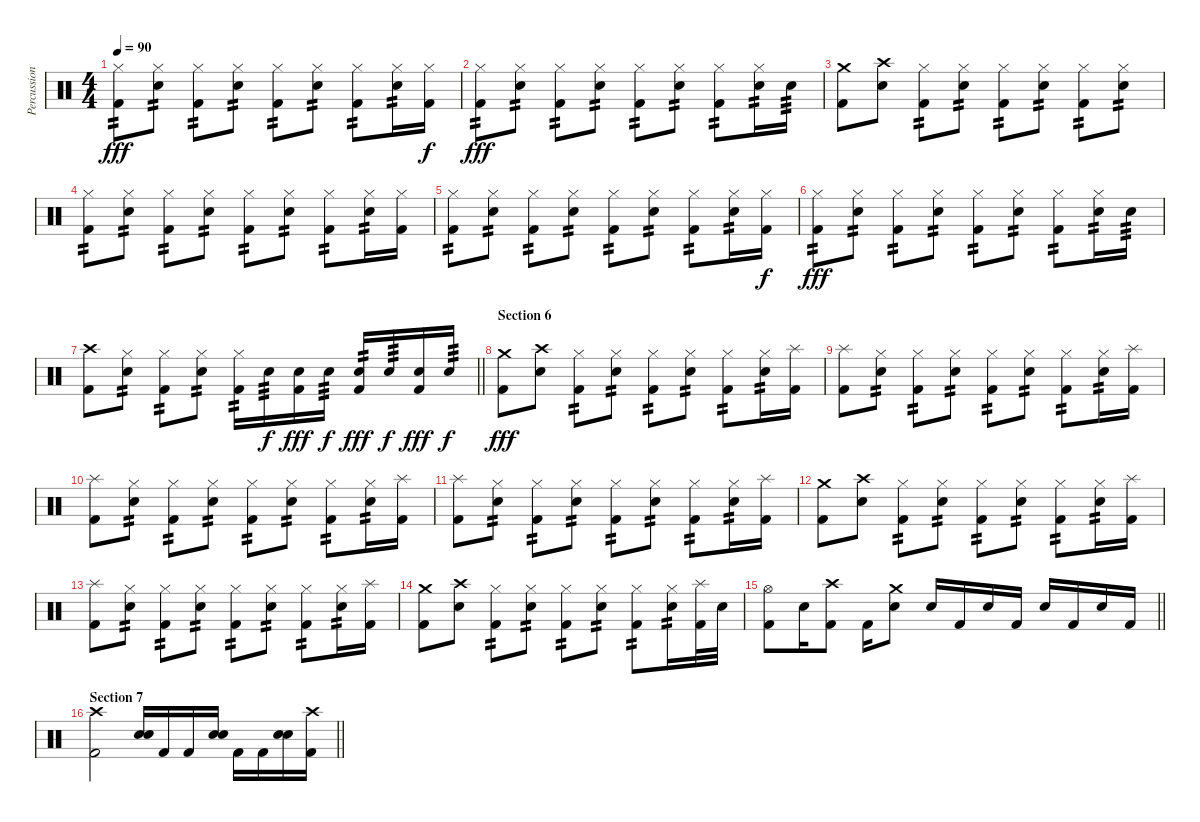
\track ("Percussion" "Percussion") {instrument percussion}
\staff {score}
\articulation defaults
\ts (4 4)
\tempo 90
\clef neutral
\ks c
("Hi-Hat (closed)" "Kick (hit) 2").8{tp 2 dy fff} ("Hi-Hat (closed)" "Electric Snare (hit)").8{tp 2} ("Hi-Hat (closed)" "Kick (hit) 2").8{tp 2} ("Hi-Hat (closed)" "Electric Snare (hit)").8{tp 2} ("Hi-Hat (closed)" "Kick (hit) 2").8{tp 2} ("Hi-Hat (closed)" "Electric Snare (hit)").8{tp 2} ("Hi-Hat (closed)" "Kick (hit) 2").8{tp 2} ("Hi-Hat (closed)" "Electric Snare (hit)").16{tp 2} ("Hi-Hat (closed)" "Kick (hit) 2").16{dy f} |
("Hi-Hat (closed)" "Kick (hit) 2").8{tp 2 dy fff} ("Hi-Hat (closed)" "Electric Snare (hit)").8{tp 2} ("Hi-Hat (closed)" "Kick (hit) 2").8{tp 2} ("Hi-Hat (closed)" "Electric Snare (hit)").8{tp 2} ("Hi-Hat (closed)" "Kick (hit) 2").8{tp 2} ("Hi-Hat (closed)" "Electric Snare (hit)").8{tp 2} ("Hi-Hat (closed)" "Kick (hit) 2").8{tp 2} ("Hi-Hat (closed)" "Electric Snare (hit)").16{tp 2} "Electric Snare (hit)".16{tp 3} |
("Crash medium (hit)" "Kick (hit) 2").8 ("Crash high (hit)" "Electric Snare (hit)").8 ("Hi-Hat (closed)" "Kick (hit) 2").8{tp 2} ("Hi-Hat (closed)" "Electric Snare (hit)").8{tp 2} ("Hi-Hat (closed)" "Kick (hit) 2").8{tp 2} ("Hi-Hat (closed)" "Electric Snare (hit)").8{tp 2} ("Hi-Hat (closed)" "Kick (hit) 2").8{tp 2} ("Hi-Hat (closed)" "Electric Snare (hit)").8{tp 2} |
("Hi-Hat (closed)" "Kick (hit) 2").8{tp 2} ("Hi-Hat (closed)" "Electric Snare (hit)").8{tp 2} ("Hi-Hat (closed)" "Kick (hit) 2").8{tp 2} ("Hi-Hat (closed)" "Electric Snare (hit)").8{tp 2} ("Hi-Hat (closed)" "Kick (hit) 2").8{tp 2} ("Hi-Hat (closed)" "Electric Snare (hit)").8{tp 2} ("Hi-Hat (closed)" "Kick (hit) 2").8{tp 2} ("Hi-Hat (closed)" "Electric Snare (hit)").16{tp 2} ("Hi-Hat (closed)" "Kick (hit) 2").16 |
("Hi-Hat (closed)" "Kick (hit) 2").8{tp 2} ("Hi-Hat (closed)" "Electric Snare (hit)").8{tp 2} ("Hi-Hat (closed)" "Kick (hit) 2").8{tp 2} ("Hi-Hat (closed)" "Electric Snare (hit)").8{tp 2} ("Hi-Hat (closed)" "Kick (hit) 2").8{tp 2} ("Hi-Hat (closed)" "Electric Snare (hit)").8{tp 2} ("Hi-Hat (closed)" "Kick (hit) 2").8{tp 2} ("Hi-Hat (closed)" "Electric Snare (hit)").16{tp 2} ("Hi-Hat (closed)" "Kick (hit) 2").16{dy f} |
("Hi-Hat (closed)" "Kick (hit) 2").8{tp 2 dy fff} ("Hi-Hat (closed)" "Electric Snare (hit)").8{tp 2} ("Hi-Hat (closed)" "Kick (hit) 2").8{tp 2} ("Hi-Hat (closed)" "Electric Snare (hit)").8{tp 2} ("Hi-Hat (closed)" "Kick (hit) 2").8{tp 2} ("Hi-Hat (closed)" "Electric Snare (hit)").8{tp 2} ("Hi-Hat (closed)" "Kick (hit) 2").8{tp 2} ("Hi-Hat (closed)" "Electric Snare (hit)").16{tp 2} "Electric Snare (hit)".16{tp 3} |
\barLineRight lightlight
("Crash high (hit)" "Kick (hit) 2").8 ("Hi-Hat (closed)" "Electric Snare (hit)").8{tp 2} ("Hi-Hat (closed)" "Kick (hit) 2").8{tp 2} ("Hi-Hat (closed)" "Electric Snare (hit)").8{tp 2} ("Hi-Hat (closed)" "Kick (hit) 2").16{tp 2} "Electric Snare (hit)".16{tp 3 dy f} ("Electric Snare (hit)" "Kick (hit) 2").16{dy fff} "Electric Snare (hit)".16{tp 3 dy f} ("Electric Snare (hit)" "Kick (hit) 2").16{tp 2 dy fff} "Electric Snare (hit)".16{tp 3 dy f} ("Electric Snare (hit)" "Kick (hit) 2").16{dy fff} "Electric Snare (hit)".16{tp 3 dy f} |
\section ("" "Section 6")
("Crash medium (hit)" "Kick (hit) 2").8{dy fff} ("Crash high (hit)" "Electric Snare (hit)").8 ("Hi-Hat (closed)" "Kick (hit) 2").8{tp 2} ("Hi-Hat (closed)" "Electric Snare (hit)").8{tp 2} ("Hi-Hat (closed)" "Kick (hit) 2").8{tp 2} ("Hi-Hat (closed)" "Electric Snare (hit)").8{tp 2} ("Hi-Hat (closed)" "Kick (hit) 2").8{tp 2} ("Hi-Hat (closed)" "Electric Snare (hit)").16{tp 2} ("Splash (hit)" "Kick (hit) 2").16 |
("Splash (hit)" "Kick (hit) 2").8 ("Hi-Hat (closed)" "Electric Snare (hit)").8{tp 2} ("Hi-Hat (closed)" "Kick (hit) 2").8{tp 2} ("Hi-Hat (closed)" "Electric Snare (hit)").8{tp 2} ("Hi-Hat (closed)" "Kick (hit) 2").8{tp 2} ("Hi-Hat (closed)" "Electric Snare (hit)").8{tp 2} ("Hi-Hat (closed)" "Kick (hit) 2").8{tp 2} ("Hi-Hat (closed)" "Electric Snare (hit)").16{tp 2} ("Splash (hit)" "Kick (hit) 2").16 |
("Splash (hit)" "Kick (hit) 2").8 ("Hi-Hat (closed)" "Electric Snare (hit)").8{tp 2} ("Hi-Hat (closed)" "Kick (hit) 2").8{tp 2} ("Hi-Hat (closed)" "Electric Snare (hit)").8{tp 2} ("Hi-Hat (closed)" "Kick (hit) 2").8{tp 2} ("Hi-Hat (closed)" "Electric Snare (hit)").8{tp 2} ("Hi-Hat (closed)" "Kick (hit) 2").8{tp 2} ("Hi-Hat (closed)" "Electric Snare (hit)").16{tp 2} ("Splash (hit)" "Kick (hit) 2").16 |
("Splash (hit)" "Kick (hit) 2").8 ("Hi-Hat (closed)" "Electric Snare (hit)").8{tp 2} ("Hi-Hat (closed)" "Kick (hit) 2").8{tp 2} ("Hi-Hat (closed)" "Electric Snare (hit)").8{tp 2} ("Hi-Hat (closed)" "Kick (hit) 2").8{tp 2} ("Hi-Hat (closed)" "Electric Snare (hit)").8{tp 2} ("Hi-Hat (closed)" "Kick (hit) 2").8{tp 2} ("Hi-Hat (closed)" "Electric Snare (hit)").16{tp 2} ("Splash (hit)" "Kick (hit) 2").16 |
("Crash medium (hit)" "Kick (hit) 2").8 ("Crash high (hit)" "Electric Snare (hit)").8 ("Hi-Hat (closed)" "Kick (hit) 2").8{tp 2} ("Hi-Hat (closed)" "Electric Snare (hit)").8{tp 2} ("Hi-Hat (closed)" "Kick (hit) 2").8{tp 2} ("Hi-Hat (closed)" "Electric Snare (hit)").8{tp 2} ("Hi-Hat (closed)" "Kick (hit) 2").8{tp 2} ("Hi-Hat (closed)" "Electric Snare (hit)").16{tp 2} ("Splash (hit)" "Kick (hit) 2").16 |
("Splash (hit)" "Kick (hit) 2").8 ("Hi-Hat (closed)" "Electric Snare (hit)").8{tp 2} ("Hi-Hat (closed)" "Kick (hit) 2").8{tp 2} ("Hi-Hat (closed)" "Electric Snare (hit)").8{tp 2} ("Hi-Hat (closed)" "Kick (hit) 2").8{tp 2} ("Hi-Hat (closed)" "Electric Snare (hit)").8{tp 2} ("Hi-Hat (closed)" "Kick (hit) 2").8{tp 2} ("Hi-Hat (closed)" "Electric Snare (hit)").16{tp 2} ("Splash (hit)" "Kick (hit) 2").16 |
("Crash medium (hit)" "Kick (hit) 2").8 ("Crash high (hit)" "Electric Snare (hit)").8 ("Hi-Hat (closed)" "Kick (hit) 2").8{tp 2} ("Hi-Hat (closed)" "Electric Snare (hit)").8{tp 2} ("Hi-Hat (closed)" "Kick (hit) 2").8{tp 2} ("Hi-Hat (closed)" "Electric Snare (hit)").8{tp 2} ("Hi-Hat (closed)" "Kick (hit) 2").8{tp 2} ("Hi-Hat (closed)" "Electric Snare (hit)").16{tp 2} ("Splash (hit)" "Kick (hit) 2").32 "Electric Snare (hit)".32 |
\barLineRight lightlight
("Hi-Hat (open)" "Kick (hit) 2").8 "Electric Snare (hit)".16 ("Crash high (hit)" "Kick (hit) 2").8 "Kick (hit) 2".16 ("Crash medium (hit)" "Electric Snare (hit)").8 "Electric Snare (hit)".16 "Kick (hit) 2".16 "Electric Snare (hit)".16 "Kick (hit) 2".16 "Electric Snare (hit)".16 "Kick (hit) 2".16 "Electric Snare (hit)".16 "Kick (hit) 2".16 |
\section ("" "Section 7")
\barLineRight lightlight
("Crash high (hit)" "Kick (hit) 2").2 ("Electric Snare (hit)" "Electric Snare (hit)").16{bd 60} "Kick (hit) 2".16 "Kick (hit) 2".16 ("Electric Snare (hit)" "Electric Snare (hit)").16{bd 60} "Kick (hit) 2".16 "Kick (hit) 2".16 ("Electric Snare (hit)" "Electric Snare (hit)").16{bd 60} ("Crash high (hit)" "Kick (hit) 2").16
